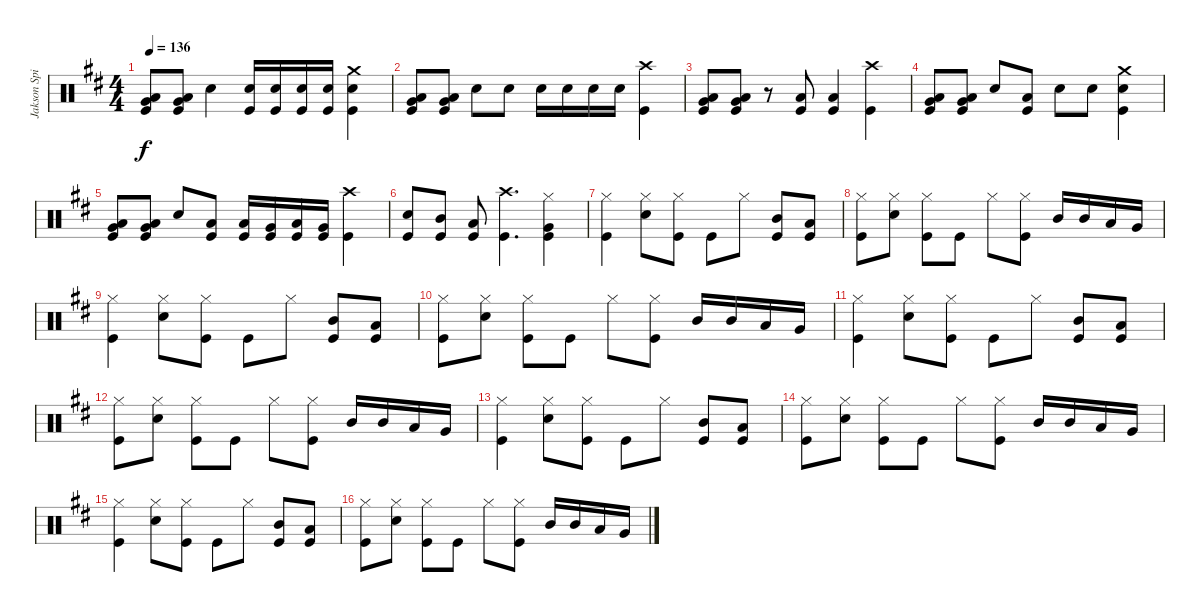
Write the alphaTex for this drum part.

\track ("Jakson Spires Drums" "Jakson Spi") {instrument percussion}
\staff {score}
\articulation defaults
\ts (4 4)
\tempo 136
\clef neutral
\ks d
("Very Low Tom (hit)" "Low Floor Tom (hit)" "Kick (hit)").8{dy f} ("Very Low Tom (hit)" "Low Floor Tom (hit)" "Kick (hit)").8 "Snare (hit) 2".4 ("Snare (hit) 2" "Kick (hit)").16 ("Snare (hit) 2" "Kick (hit)").16 ("Snare (hit) 2" "Kick (hit)").16 ("Snare (hit) 2" "Kick (hit)").16 ("Crash medium (hit)" "Snare (hit) 2" "Kick (hit)").4 |
("Very Low Tom (hit)" "Low Floor Tom (hit)" "Kick (hit)").8 ("Very Low Tom (hit)" "Low Floor Tom (hit)" "Kick (hit)").8 "Snare (hit) 2".8 "Snare (hit) 2".8 "Snare (hit) 2".16 "Snare (hit) 2".16 "Snare (hit) 2".16 "Snare (hit) 2".16 ("Crash high (hit)" "Kick (hit)").4 |
("Very Low Tom (hit)" "Low Floor Tom (hit)" "Kick (hit)").8 ("Very Low Tom (hit)" "Low Floor Tom (hit)" "Kick (hit)").8 r.8 ("Low Tom (hit)" "Kick (hit)").8 ("Low Tom (hit)" "Kick (hit)").4 ("Crash high (hit)" "Kick (hit)").4 |
("Very Low Tom (hit)" "Low Floor Tom (hit)" "Kick (hit)").8 ("Very Low Tom (hit)" "Low Floor Tom (hit)" "Kick (hit)").8 "Snare (hit) 2".8 ("Low Tom (hit)" "Kick (hit)").8 "Snare (hit) 2".8 "Snare (hit) 2".8 ("Crash medium (hit)" "Snare (hit) 2" "Kick (hit)").4 |
("Very Low Tom (hit)" "Low Floor Tom (hit)" "Kick (hit)").8 ("Very Low Tom (hit)" "Low Floor Tom (hit)" "Kick (hit)").8 "Snare (hit) 2".8 ("Low Tom (hit)" "Kick (hit)").8 ("Low Tom (hit)" "Kick (hit)").16 ("Very Low Tom (hit)" "Kick (hit)").16 ("Low Tom (hit)" "Kick (hit)").16 ("Very Low Tom (hit)" "Kick (hit)").16 ("Crash high (hit)" "Kick (hit)").4 |
("Snare (hit) 2" "Kick (hit)").8 ("Mid Tom (hit)" "Kick (hit)").8 ("Low Tom (hit)" "Kick (hit)").8 ("Crash high (hit)" "Kick (hit)").4{d} ("Very Low Tom (hit)" "Hi-Hat (closed)" "Kick (hit)").4 |
("Hi-Hat (closed)" "Kick (hit)").4 ("Hi-Hat (closed)" "Snare (hit) 2").8 ("Hi-Hat (closed)" "Kick (hit)").8 "Kick (hit)".8 "Hi-Hat (closed)".8 ("Mid Tom (hit)" "Kick (hit)").8 ("Low Tom (hit)" "Kick (hit)").8 |
("Hi-Hat (closed)" "Kick (hit)").8 ("Hi-Hat (closed)" "Snare (hit) 2").8 ("Hi-Hat (closed)" "Kick (hit)").8 "Kick (hit)".8 "Hi-Hat (closed)".8 ("Hi-Hat (closed)" "Kick (hit)").8 "Mid Tom (hit)".16 "Mid Tom (hit)".16 "Low Tom (hit)".16 "Very Low Tom (hit)".16 |
("Hi-Hat (closed)" "Kick (hit)").4 ("Hi-Hat (closed)" "Snare (hit) 2").8 ("Hi-Hat (closed)" "Kick (hit)").8 "Kick (hit)".8 "Hi-Hat (closed)".8 ("Mid Tom (hit)" "Kick (hit)").8 ("Low Tom (hit)" "Kick (hit)").8 |
("Hi-Hat (closed)" "Kick (hit)").8 ("Hi-Hat (closed)" "Snare (hit) 2").8 ("Hi-Hat (closed)" "Kick (hit)").8 "Kick (hit)".8 "Hi-Hat (closed)".8 ("Hi-Hat (closed)" "Kick (hit)").8 "Mid Tom (hit)".16 "Mid Tom (hit)".16 "Low Tom (hit)".16 "Very Low Tom (hit)".16 |
("Hi-Hat (closed)" "Kick (hit)").4 ("Hi-Hat (closed)" "Snare (hit) 2").8 ("Hi-Hat (closed)" "Kick (hit)").8 "Kick (hit)".8 "Hi-Hat (closed)".8 ("Mid Tom (hit)" "Kick (hit)").8 ("Low Tom (hit)" "Kick (hit)").8 |
("Hi-Hat (closed)" "Kick (hit)").8 ("Hi-Hat (closed)" "Snare (hit) 2").8 ("Hi-Hat (closed)" "Kick (hit)").8 "Kick (hit)".8 "Hi-Hat (closed)".8 ("Hi-Hat (closed)" "Kick (hit)").8 "Mid Tom (hit)".16 "Mid Tom (hit)".16 "Low Tom (hit)".16 "Very Low Tom (hit)".16 |
("Hi-Hat (closed)" "Kick (hit)").4 ("Hi-Hat (closed)" "Snare (hit) 2").8 ("Hi-Hat (closed)" "Kick (hit)").8 "Kick (hit)".8 "Hi-Hat (closed)".8 ("Mid Tom (hit)" "Kick (hit)").8 ("Low Tom (hit)" "Kick (hit)").8 |
("Hi-Hat (closed)" "Kick (hit)").8 ("Hi-Hat (closed)" "Snare (hit) 2").8 ("Hi-Hat (closed)" "Kick (hit)").8 "Kick (hit)".8 "Hi-Hat (closed)".8 ("Hi-Hat (closed)" "Kick (hit)").8 "Mid Tom (hit)".16 "Mid Tom (hit)".16 "Low Tom (hit)".16 "Very Low Tom (hit)".16 |
("Hi-Hat (closed)" "Kick (hit)").4 ("Hi-Hat (closed)" "Snare (hit) 2").8 ("Hi-Hat (closed)" "Kick (hit)").8 "Kick (hit)".8 "Hi-Hat (closed)".8 ("Mid Tom (hit)" "Kick (hit)").8 ("Low Tom (hit)" "Kick (hit)").8 |
("Hi-Hat (closed)" "Kick (hit)").8 ("Hi-Hat (closed)" "Snare (hit) 2").8 ("Hi-Hat (closed)" "Kick (hit)").8 "Kick (hit)".8 "Hi-Hat (closed)".8 ("Hi-Hat (closed)" "Kick (hit)").8 "Mid Tom (hit)".16 "Mid Tom (hit)".16 "Low Tom (hit)".16 "Very Low Tom (hit)".16
